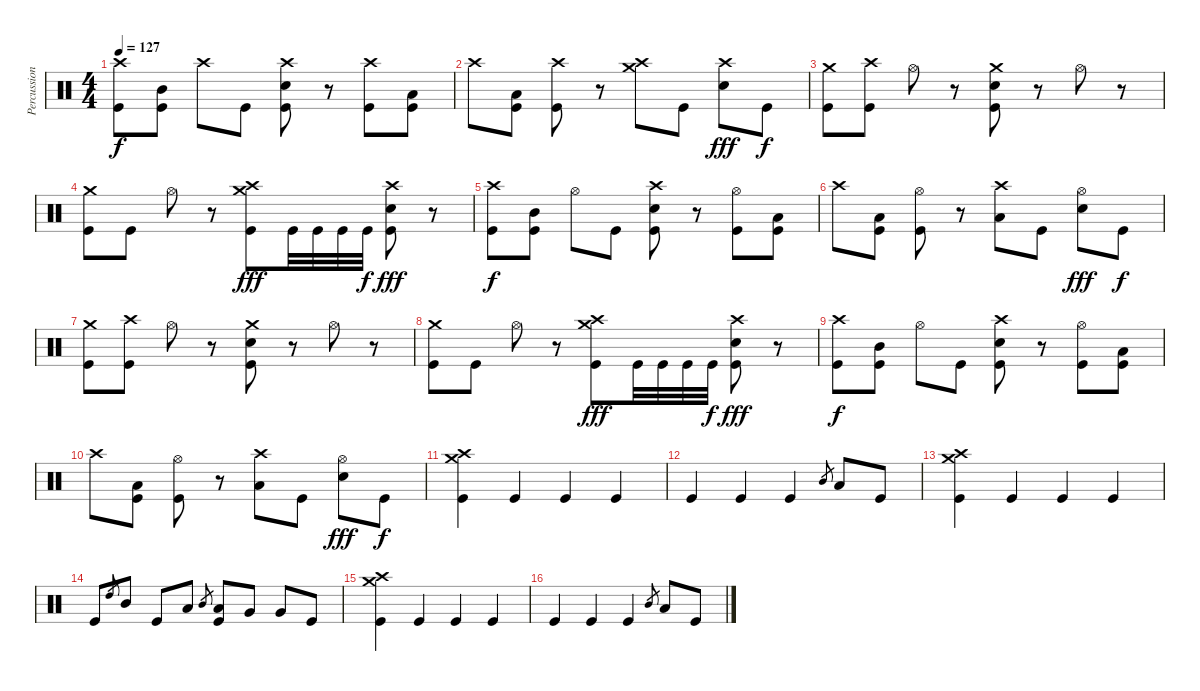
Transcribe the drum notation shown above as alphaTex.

\track ("Percussion" "Percussion") {instrument percussion}
\staff {score}
\articulation defaults
\ts (4 4)
\tempo 127
\clef neutral
\ks c
("Crash high (hit)" "Kick (hit)").8{dy f} ("Mid Tom (hit)" "Kick (hit)").8 "Crash high (hit)".8 "Kick (hit)".8 ("Crash high (hit)" "Snare (hit) 2" "Kick (hit)").8 r.8 ("Crash high (hit)" "Kick (hit)").8 ("Low Tom (hit)" "Kick (hit)").8 |
"Crash high (hit)".8 ("Low Tom (hit)" "Kick (hit)").8 ("Crash high (hit)" "Kick (hit)").8 r.8 ("Crash medium (hit)" "Crash high (hit)").8 "Kick (hit)".8 ("Crash high (hit)" "Snare (hit) 2").8{dy fff} "Kick (hit)".8{dy f} |
("Crash medium (hit)" "Kick (hit)").8 ("Crash high (hit)" "Kick (hit)").8 "Hi-Hat (open)".8 r.8 ("Crash medium (hit)" "Snare (hit) 2" "Kick (hit)").8 r.8 "Hi-Hat (open)".8 r.8 |
("Crash medium (hit)" "Kick (hit)").8 "Kick (hit)".8 "Hi-Hat (open)".8 r.8 ("Crash high (hit)" "Crash medium (hit)" "Kick (hit)").8{dy fff} "Kick (hit)".32 "Kick (hit)".32 "Kick (hit)".32 "Kick (hit)".32{dy f} ("Crash high (hit)" "Snare (hit) 2" "Kick (hit)").8{dy fff} r.8 |
("Crash high (hit)" "Kick (hit)").8{dy f} ("Mid Tom (hit)" "Kick (hit)").8 "Hi-Hat (open)".8 "Kick (hit)".8 ("Crash high (hit)" "Snare (hit) 2" "Kick (hit)").8 r.8 ("Hi-Hat (open)" "Kick (hit)").8 ("Low Tom (hit)" "Kick (hit)").8 |
"Crash high (hit)".8 ("Low Tom (hit)" "Kick (hit)").8 ("Hi-Hat (open)" "Kick (hit)").8 r.8 ("Crash high (hit)" "Low Tom (hit)").8 "Kick (hit)".8 ("Hi-Hat (open)" "Snare (hit) 2").8{dy fff} "Kick (hit)".8{dy f} |
("Crash medium (hit)" "Kick (hit)").8 ("Crash high (hit)" "Kick (hit)").8 "Hi-Hat (open)".8 r.8 ("Crash medium (hit)" "Snare (hit) 2" "Kick (hit)").8 r.8 "Hi-Hat (open)".8 r.8 |
("Crash medium (hit)" "Kick (hit)").8 "Kick (hit)".8 "Hi-Hat (open)".8 r.8 ("Crash high (hit)" "Crash medium (hit)" "Kick (hit)").8{dy fff} "Kick (hit)".32 "Kick (hit)".32 "Kick (hit)".32 "Kick (hit)".32{dy f} ("Crash high (hit)" "Snare (hit) 2" "Kick (hit)").8{dy fff} r.8 |
("Crash high (hit)" "Kick (hit)").8{dy f} ("Mid Tom (hit)" "Kick (hit)").8 "Hi-Hat (open)".8 "Kick (hit)".8 ("Crash high (hit)" "Snare (hit) 2" "Kick (hit)").8 r.8 ("Hi-Hat (open)" "Kick (hit)").8 ("Low Tom (hit)" "Kick (hit)").8 |
"Crash high (hit)".8 ("Low Tom (hit)" "Kick (hit)").8 ("Hi-Hat (open)" "Kick (hit)").8 r.8 ("Crash high (hit)" "Low Tom (hit)").8 "Kick (hit)".8 ("Hi-Hat (open)" "Snare (hit) 2").8{dy fff} "Kick (hit)".8{dy f} |
("Crash medium (hit)" "Crash high (hit)" "Kick (hit)").4 "Kick (hit)".4 "Kick (hit)".4 "Kick (hit)".4 |
"Kick (hit)".4 "Kick (hit)".4 "Kick (hit)".4 "Mid Tom (hit)".8{gr} "Low Tom (hit)".8 "Kick (hit)".8 |
("Crash medium (hit)" "Crash high (hit)" "Kick (hit)").4 "Kick (hit)".4 "Kick (hit)".4 "Kick (hit)".4 |
"Kick (hit)".8 "High Tom (hit)".8{gr} "Mid Tom (hit)".8 "Kick (hit)".8 "Low Tom (hit)".8 "Mid Tom (hit)".8{gr} ("Low Tom (hit)" "Kick (hit)").8 "Very Low Tom (hit)".8 "Very Low Tom (hit)".8 "Kick (hit)".8 |
("Crash medium (hit)" "Crash high (hit)" "Kick (hit)").4 "Kick (hit)".4 "Kick (hit)".4 "Kick (hit)".4 |
"Kick (hit)".4 "Kick (hit)".4 "Kick (hit)".4 "Mid Tom (hit)".8{gr} "Low Tom (hit)".8 "Kick (hit)".8
